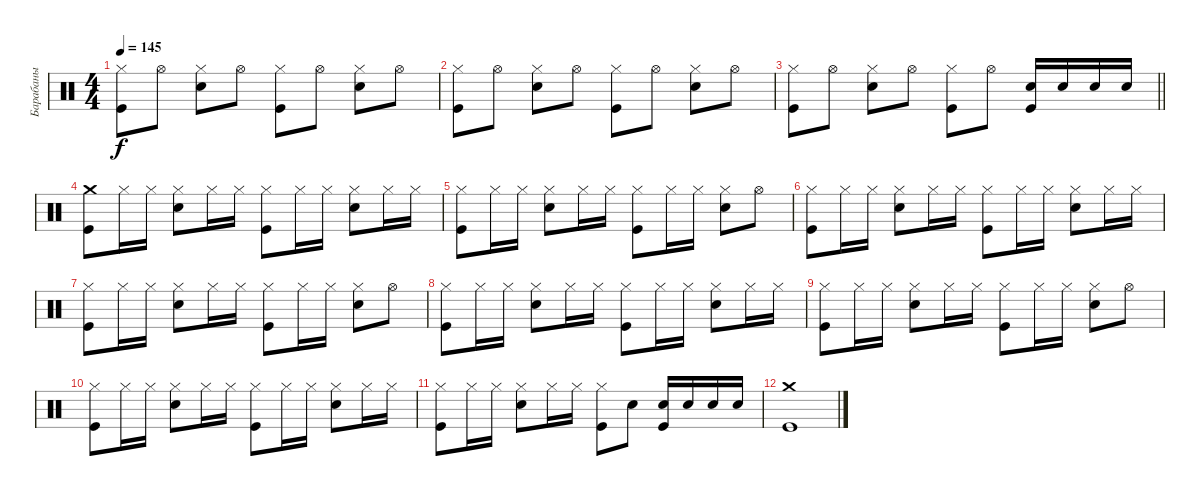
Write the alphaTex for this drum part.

\track ("Барабаны" "Барабаны") {instrument percussion}
\staff {score}
\articulation defaults
\ts (4 4)
\tempo 145
\clef neutral
\ks c
("Hi-Hat (closed)" "Kick (hit)").8{dy f} "Hi-Hat (open)".8 ("Hi-Hat (closed)" "Electric Snare (hit)").8 "Hi-Hat (open)".8 ("Hi-Hat (closed)" "Kick (hit)").8 "Hi-Hat (open)".8 ("Hi-Hat (closed)" "Electric Snare (hit)").8 "Hi-Hat (open)".8 |
("Hi-Hat (closed)" "Kick (hit)").8 "Hi-Hat (open)".8 ("Hi-Hat (closed)" "Electric Snare (hit)").8 "Hi-Hat (open)".8 ("Hi-Hat (closed)" "Kick (hit)").8 "Hi-Hat (open)".8 ("Hi-Hat (closed)" "Electric Snare (hit)").8 "Hi-Hat (open)".8 |
\barLineRight lightlight
("Hi-Hat (closed)" "Kick (hit)").8 "Hi-Hat (open)".8 ("Hi-Hat (closed)" "Electric Snare (hit)").8 "Hi-Hat (open)".8 ("Hi-Hat (closed)" "Kick (hit)").8 "Hi-Hat (open)".8 ("Electric Snare (hit)" "Kick (hit)").16 "Electric Snare (hit)".16 "Electric Snare (hit)".16 "Electric Snare (hit)".16 |
("Crash medium (hit)" "Kick (hit)").8 "Hi-Hat (closed)".16 "Hi-Hat (closed)".16 ("Hi-Hat (closed)" "Electric Snare (hit)").8 "Hi-Hat (closed)".16 "Hi-Hat (closed)".16 ("Hi-Hat (closed)" "Kick (hit)").8 "Hi-Hat (closed)".16 "Hi-Hat (closed)".16 ("Hi-Hat (closed)" "Electric Snare (hit)").8 "Hi-Hat (closed)".16 "Hi-Hat (closed)".16 |
("Hi-Hat (closed)" "Kick (hit)").8 "Hi-Hat (closed)".16 "Hi-Hat (closed)".16 ("Hi-Hat (closed)" "Electric Snare (hit)").8 "Hi-Hat (closed)".16 "Hi-Hat (closed)".16 ("Hi-Hat (closed)" "Kick (hit)").8 "Hi-Hat (closed)".16 "Hi-Hat (closed)".16 ("Hi-Hat (closed)" "Electric Snare (hit)").8 "Hi-Hat (open)".8 |
("Hi-Hat (closed)" "Kick (hit)").8 "Hi-Hat (closed)".16 "Hi-Hat (closed)".16 ("Hi-Hat (closed)" "Electric Snare (hit)").8 "Hi-Hat (closed)".16 "Hi-Hat (closed)".16 ("Hi-Hat (closed)" "Kick (hit)").8 "Hi-Hat (closed)".16 "Hi-Hat (closed)".16 ("Hi-Hat (closed)" "Electric Snare (hit)").8 "Hi-Hat (closed)".16 "Hi-Hat (closed)".16 |
("Hi-Hat (closed)" "Kick (hit)").8 "Hi-Hat (closed)".16 "Hi-Hat (closed)".16 ("Hi-Hat (closed)" "Electric Snare (hit)").8 "Hi-Hat (closed)".16 "Hi-Hat (closed)".16 ("Hi-Hat (closed)" "Kick (hit)").8 "Hi-Hat (closed)".16 "Hi-Hat (closed)".16 ("Hi-Hat (closed)" "Electric Snare (hit)").8 "Hi-Hat (open)".8 |
("Hi-Hat (closed)" "Kick (hit)").8 "Hi-Hat (closed)".16 "Hi-Hat (closed)".16 ("Hi-Hat (closed)" "Electric Snare (hit)").8 "Hi-Hat (closed)".16 "Hi-Hat (closed)".16 ("Hi-Hat (closed)" "Kick (hit)").8 "Hi-Hat (closed)".16 "Hi-Hat (closed)".16 ("Hi-Hat (closed)" "Electric Snare (hit)").8 "Hi-Hat (closed)".16 "Hi-Hat (closed)".16 |
("Hi-Hat (closed)" "Kick (hit)").8 "Hi-Hat (closed)".16 "Hi-Hat (closed)".16 ("Hi-Hat (closed)" "Electric Snare (hit)").8 "Hi-Hat (closed)".16 "Hi-Hat (closed)".16 ("Hi-Hat (closed)" "Kick (hit)").8 "Hi-Hat (closed)".16 "Hi-Hat (closed)".16 ("Hi-Hat (closed)" "Electric Snare (hit)").8 "Hi-Hat (open)".8 |
("Hi-Hat (closed)" "Kick (hit)").8 "Hi-Hat (closed)".16 "Hi-Hat (closed)".16 ("Hi-Hat (closed)" "Electric Snare (hit)").8 "Hi-Hat (closed)".16 "Hi-Hat (closed)".16 ("Hi-Hat (closed)" "Kick (hit)").8 "Hi-Hat (closed)".16 "Hi-Hat (closed)".16 ("Hi-Hat (closed)" "Electric Snare (hit)").8 "Hi-Hat (closed)".16 "Hi-Hat (closed)".16 |
("Hi-Hat (closed)" "Kick (hit)").8 "Hi-Hat (closed)".16 "Hi-Hat (closed)".16 ("Hi-Hat (closed)" "Electric Snare (hit)").8 "Hi-Hat (closed)".16 "Hi-Hat (closed)".16 ("Hi-Hat (closed)" "Kick (hit)").8 "Electric Snare (hit)".8 ("Electric Snare (hit)" "Kick (hit)").16 "Electric Snare (hit)".16 "Electric Snare (hit)".16 "Electric Snare (hit)".16 |
("Crash medium (hit)" "Kick (hit)").1
